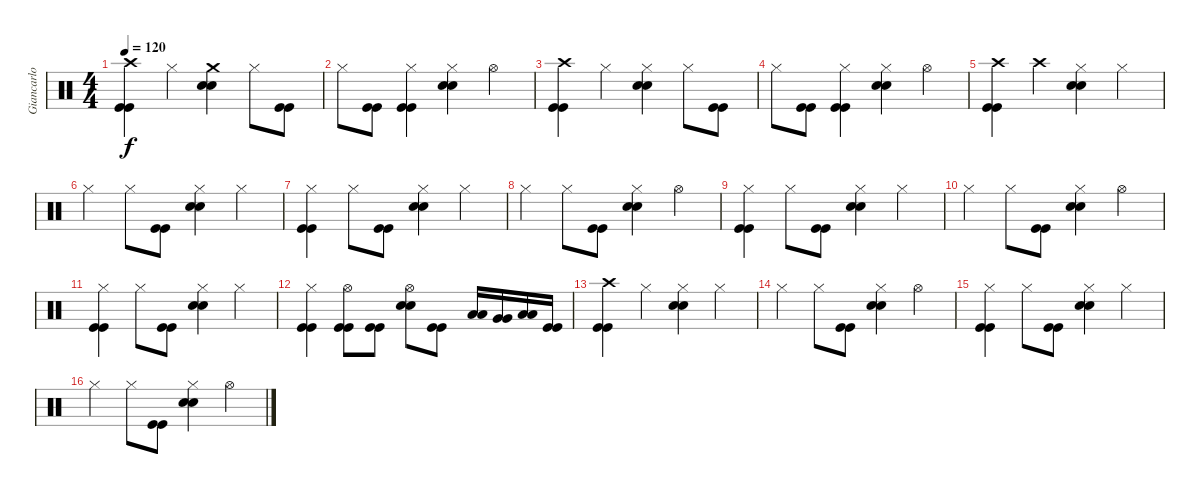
\track ("Giancarlo Autenzio - Drums" "Giancarlo ") {instrument percussion}
\staff {score}
\articulation defaults
\ts (4 4)
\tempo 120
\clef neutral
\ks c
("Kick (hit)" "Kick (hit)" "Crash high (hit)").4{dy f} "Hi-Hat (closed)".4 ("Electric Snare (hit)" "Electric Snare (hit)" "Crash medium (hit)").4 "Hi-Hat (closed)".8 ("Kick (hit)" "Kick (hit)").8 |
"Hi-Hat (closed)".8 ("Kick (hit)" "Kick (hit)").8 ("Kick (hit)" "Kick (hit)" "Hi-Hat (closed)").4 ("Electric Snare (hit)" "Electric Snare (hit)" "Hi-Hat (closed)").4 "Hi-Hat (open)".4 |
("Kick (hit)" "Kick (hit)" "Crash high (hit)").4 "Hi-Hat (closed)".4 ("Electric Snare (hit)" "Electric Snare (hit)" "Hi-Hat (closed)").4 "Hi-Hat (closed)".8 ("Kick (hit)" "Kick (hit)").8 |
"Hi-Hat (closed)".8 ("Kick (hit)" "Kick (hit)").8 ("Kick (hit)" "Kick (hit)" "Hi-Hat (closed)").4 ("Electric Snare (hit)" "Electric Snare (hit)" "Hi-Hat (closed)").4 "Hi-Hat (open)".4 |
("Kick (hit)" "Kick (hit)" "Crash high (hit)").4 "Crash high (hit)".4 ("Electric Snare (hit)" "Electric Snare (hit)" "Hi-Hat (closed)").4 "Hi-Hat (closed)".4 |
"Hi-Hat (closed)".4 "Hi-Hat (closed)".8 ("Kick (hit)" "Kick (hit)").8 ("Electric Snare (hit)" "Electric Snare (hit)" "Hi-Hat (closed)").4 "Hi-Hat (closed)".4 |
("Kick (hit)" "Kick (hit)" "Hi-Hat (closed)").4 "Hi-Hat (closed)".8 ("Kick (hit)" "Kick (hit)").8 ("Electric Snare (hit)" "Electric Snare (hit)" "Hi-Hat (closed)").4 "Hi-Hat (closed)".4 |
"Hi-Hat (closed)".4 "Hi-Hat (closed)".8 ("Kick (hit)" "Kick (hit)").8 ("Electric Snare (hit)" "Electric Snare (hit)" "Hi-Hat (closed)").4 "Hi-Hat (open)".4 |
("Kick (hit)" "Kick (hit)" "Hi-Hat (closed)").4 "Hi-Hat (closed)".8 ("Kick (hit)" "Kick (hit)").8 ("Electric Snare (hit)" "Electric Snare (hit)" "Hi-Hat (closed)").4 "Hi-Hat (closed)".4 |
"Hi-Hat (closed)".4 "Hi-Hat (closed)".8 ("Kick (hit)" "Kick (hit)").8 ("Electric Snare (hit)" "Electric Snare (hit)" "Hi-Hat (closed)").4 "Hi-Hat (open)".4 |
("Kick (hit)" "Kick (hit)" "Hi-Hat (closed)").4 "Hi-Hat (closed)".8 ("Kick (hit)" "Kick (hit)").8 ("Electric Snare (hit)" "Electric Snare (hit)" "Hi-Hat (closed)").4 "Hi-Hat (closed)".4 |
("Kick (hit)" "Kick (hit)" "Hi-Hat (closed)").4 ("Kick (hit)" "Kick (hit)" "Hi-Hat (open)").8 ("Kick (hit)" "Kick (hit)").8 ("Electric Snare (hit)" "Electric Snare (hit)" "Hi-Hat (open)").8 ("Kick (hit)" "Kick (hit)").8 ("Low Tom (hit)" "Low Tom (hit)").16 ("Very Low Tom (hit)" "Very Low Tom (hit)").16 ("Low Floor Tom (hit)" "Low Floor Tom (hit)").16 ("Kick (hit)" "Kick (hit)").16 |
("Kick (hit)" "Kick (hit)" "Crash high (hit)").4 "Hi-Hat (closed)".4 ("Electric Snare (hit)" "Electric Snare (hit)" "Hi-Hat (closed)").4 "Hi-Hat (closed)".4 |
"Hi-Hat (closed)".4 "Hi-Hat (closed)".8 ("Kick (hit)" "Kick (hit)").8 ("Electric Snare (hit)" "Electric Snare (hit)" "Hi-Hat (closed)").4 "Hi-Hat (open)".4 |
("Kick (hit)" "Kick (hit)" "Hi-Hat (closed)").4 "Hi-Hat (closed)".8 ("Kick (hit)" "Kick (hit)").8 ("Electric Snare (hit)" "Electric Snare (hit)" "Hi-Hat (closed)").4 "Hi-Hat (closed)".4 |
"Hi-Hat (closed)".4 "Hi-Hat (closed)".8 ("Kick (hit)" "Kick (hit)").8 ("Electric Snare (hit)" "Electric Snare (hit)" "Hi-Hat (closed)").4 "Hi-Hat (open)".4
